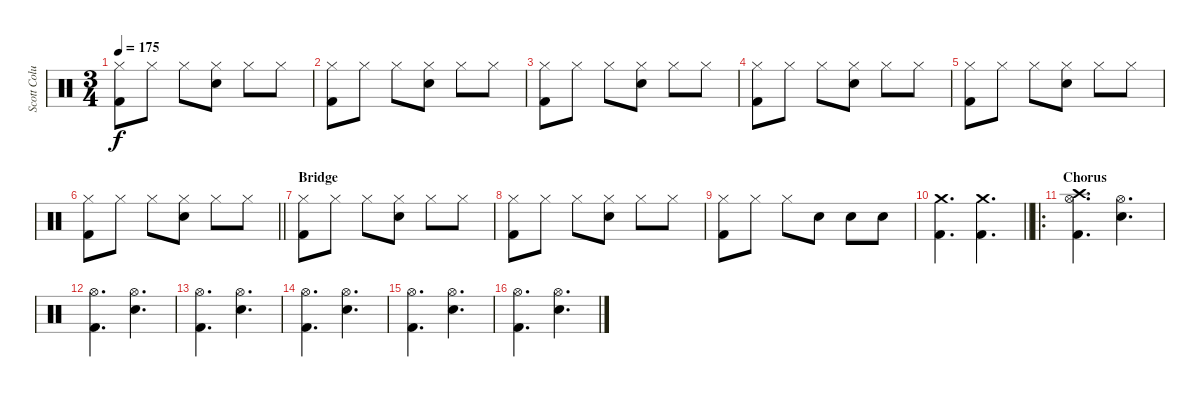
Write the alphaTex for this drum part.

\track ("Scott Columbus" "Scott Colu") {instrument percussion}
\staff {score}
\articulation defaults
\ts (3 4)
\tempo 175
\clef neutral
\ks c
("Kick (hit) 2" "Hi-Hat (closed)").8{dy f} "Hi-Hat (closed)".8 "Hi-Hat (closed)".8 ("Snare (hit) 2" "Hi-Hat (closed)").8 "Hi-Hat (closed)".8 "Hi-Hat (closed)".8 |
("Kick (hit) 2" "Hi-Hat (closed)").8 "Hi-Hat (closed)".8 "Hi-Hat (closed)".8 ("Snare (hit) 2" "Hi-Hat (closed)").8 "Hi-Hat (closed)".8 "Hi-Hat (closed)".8 |
("Kick (hit) 2" "Hi-Hat (closed)").8 "Hi-Hat (closed)".8 "Hi-Hat (closed)".8 ("Snare (hit) 2" "Hi-Hat (closed)").8 "Hi-Hat (closed)".8 "Hi-Hat (closed)".8 |
("Kick (hit) 2" "Hi-Hat (closed)").8 "Hi-Hat (closed)".8 "Hi-Hat (closed)".8 ("Snare (hit) 2" "Hi-Hat (closed)").8 "Hi-Hat (closed)".8 "Hi-Hat (closed)".8 |
("Kick (hit) 2" "Hi-Hat (closed)").8 "Hi-Hat (closed)".8 "Hi-Hat (closed)".8 ("Snare (hit) 2" "Hi-Hat (closed)").8 "Hi-Hat (closed)".8 "Hi-Hat (closed)".8 |
\barLineRight lightlight
("Kick (hit) 2" "Hi-Hat (closed)").8 "Hi-Hat (closed)".8 "Hi-Hat (closed)".8 ("Snare (hit) 2" "Hi-Hat (closed)").8 "Hi-Hat (closed)".8 "Hi-Hat (closed)".8 |
\section ("" "Bridge")
("Kick (hit) 2" "Hi-Hat (closed)").8 "Hi-Hat (closed)".8 "Hi-Hat (closed)".8 ("Snare (hit) 2" "Hi-Hat (closed)").8 "Hi-Hat (closed)".8 "Hi-Hat (closed)".8 |
("Kick (hit) 2" "Hi-Hat (closed)").8 "Hi-Hat (closed)".8 "Hi-Hat (closed)".8 ("Snare (hit) 2" "Hi-Hat (closed)").8 "Hi-Hat (closed)".8 "Hi-Hat (closed)".8 |
("Kick (hit) 2" "Hi-Hat (closed)").8 "Hi-Hat (closed)".8 "Hi-Hat (closed)".8 "Snare (hit) 2".8 "Snare (hit) 2".8 "Snare (hit) 2".8 |
\barLineRight lightlight
("Kick (hit) 2" "Crash medium (hit)").4{d} ("Kick (hit) 2" "Crash medium (hit)").4{d} |
\ro
\section ("" "Chorus")
("Kick (hit) 2" "Hi-Hat (open)" "Crash high (hit)").4{d} ("Snare (hit) 2" "Hi-Hat (open)").4{d} |
("Kick (hit) 2" "Hi-Hat (open)").4{d} ("Snare (hit) 2" "Hi-Hat (open)").4{d} |
("Kick (hit) 2" "Hi-Hat (open)").4{d} ("Snare (hit) 2" "Hi-Hat (open)").4{d} |
("Kick (hit) 2" "Hi-Hat (open)").4{d} ("Snare (hit) 2" "Hi-Hat (open)").4{d} |
("Kick (hit) 2" "Hi-Hat (open)").4{d} ("Snare (hit) 2" "Hi-Hat (open)").4{d} |
("Kick (hit) 2" "Hi-Hat (open)").4{d} ("Snare (hit) 2" "Hi-Hat (open)").4{d}
